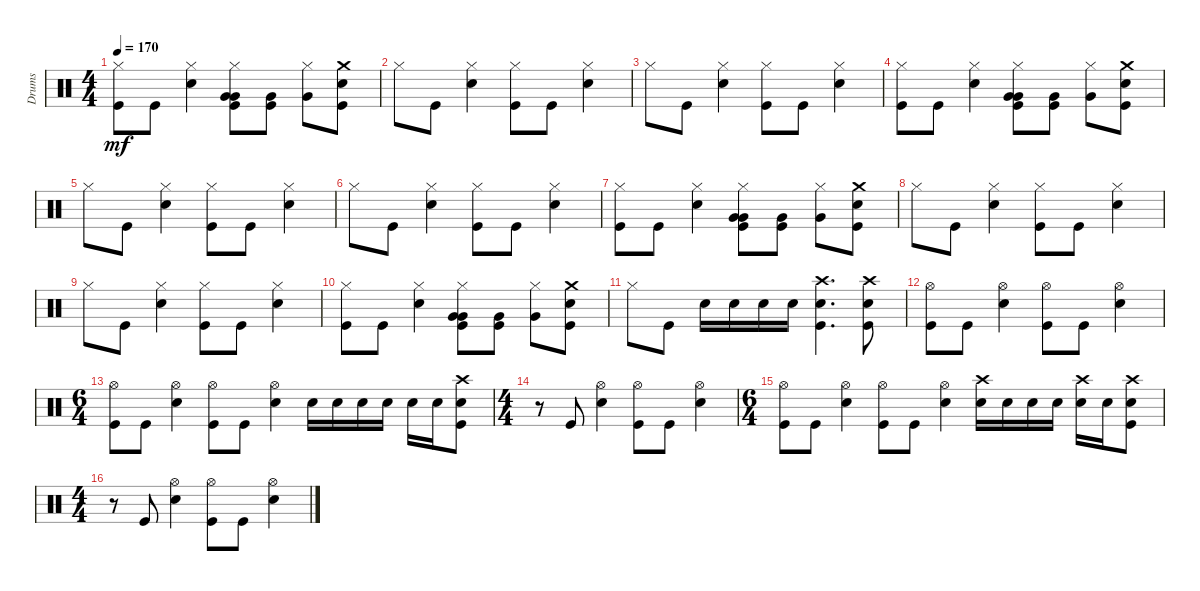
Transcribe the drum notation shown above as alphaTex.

\track ("Drums" "Drums") {instrument percussion}
\staff {score}
\articulation defaults
\ts (4 4)
\tempo 170
\clef neutral
\ks c
("Hi-Hat (closed)" "Kick (hit)").8{dy mf} "Kick (hit)".8 ("Hi-Hat (closed)" "Electric Snare (hit)").4 ("Very Low Tom (hit)" "Hi-Hat (closed)" "Very Low Tom (hit)" "Kick (hit)").8 ("Very Low Tom (hit)" "Kick (hit)").8 ("Hi-Hat (closed)" "Very Low Tom (hit)").8 ("Crash medium (hit)" "Electric Snare (hit)" "Kick (hit)").8 |
"Hi-Hat (closed)".8 "Kick (hit)".8 ("Hi-Hat (closed)" "Electric Snare (hit)").4 ("Hi-Hat (closed)" "Kick (hit)").8 "Kick (hit)".8 ("Hi-Hat (closed)" "Electric Snare (hit)").4 |
"Hi-Hat (closed)".8 "Kick (hit)".8 ("Hi-Hat (closed)" "Electric Snare (hit)").4 ("Hi-Hat (closed)" "Kick (hit)").8 "Kick (hit)".8 ("Hi-Hat (closed)" "Electric Snare (hit)").4 |
("Hi-Hat (closed)" "Kick (hit)").8 "Kick (hit)".8 ("Hi-Hat (closed)" "Electric Snare (hit)").4 ("Very Low Tom (hit)" "Hi-Hat (closed)" "Very Low Tom (hit)" "Kick (hit)").8 ("Very Low Tom (hit)" "Kick (hit)").8 ("Hi-Hat (closed)" "Very Low Tom (hit)").8 ("Crash medium (hit)" "Electric Snare (hit)" "Kick (hit)").8 |
"Hi-Hat (closed)".8 "Kick (hit)".8 ("Hi-Hat (closed)" "Electric Snare (hit)").4 ("Hi-Hat (closed)" "Kick (hit)").8 "Kick (hit)".8 ("Hi-Hat (closed)" "Electric Snare (hit)").4 |
"Hi-Hat (closed)".8 "Kick (hit)".8 ("Hi-Hat (closed)" "Electric Snare (hit)").4 ("Hi-Hat (closed)" "Kick (hit)").8 "Kick (hit)".8 ("Hi-Hat (closed)" "Electric Snare (hit)").4 |
("Hi-Hat (closed)" "Kick (hit)").8 "Kick (hit)".8 ("Hi-Hat (closed)" "Electric Snare (hit)").4 ("Very Low Tom (hit)" "Hi-Hat (closed)" "Very Low Tom (hit)" "Kick (hit)").8 ("Very Low Tom (hit)" "Kick (hit)").8 ("Hi-Hat (closed)" "Very Low Tom (hit)").8 ("Crash medium (hit)" "Electric Snare (hit)" "Kick (hit)").8 |
"Hi-Hat (closed)".8 "Kick (hit)".8 ("Hi-Hat (closed)" "Electric Snare (hit)").4 ("Hi-Hat (closed)" "Kick (hit)").8 "Kick (hit)".8 ("Hi-Hat (closed)" "Electric Snare (hit)").4 |
"Hi-Hat (closed)".8 "Kick (hit)".8 ("Hi-Hat (closed)" "Electric Snare (hit)").4 ("Hi-Hat (closed)" "Kick (hit)").8 "Kick (hit)".8 ("Hi-Hat (closed)" "Electric Snare (hit)").4 |
("Hi-Hat (closed)" "Kick (hit)").8 "Kick (hit)".8 ("Hi-Hat (closed)" "Electric Snare (hit)").4 ("Very Low Tom (hit)" "Hi-Hat (closed)" "Very Low Tom (hit)" "Kick (hit)").8 ("Very Low Tom (hit)" "Kick (hit)").8 ("Hi-Hat (closed)" "Very Low Tom (hit)").8 ("Crash medium (hit)" "Electric Snare (hit)" "Kick (hit)").8 |
"Hi-Hat (closed)".8 "Kick (hit)".8 "Electric Snare (hit)".16 "Electric Snare (hit)".16 "Electric Snare (hit)".16 "Electric Snare (hit)".16 ("Crash high (hit)" "Electric Snare (hit)" "Kick (hit)").4{d} ("Crash high (hit)" "Electric Snare (hit)" "Kick (hit)").8 |
("Hi-Hat (open)" "Kick (hit)").8 "Kick (hit)".8 ("Hi-Hat (open)" "Electric Snare (hit)").4 ("Hi-Hat (open)" "Kick (hit)").8 "Kick (hit)".8 ("Hi-Hat (open)" "Electric Snare (hit)").4 |
\ts (6 4)
("Hi-Hat (open)" "Kick (hit)").8 "Kick (hit)".8 ("Hi-Hat (open)" "Electric Snare (hit)").4 ("Hi-Hat (open)" "Kick (hit)").8 "Kick (hit)".8 ("Hi-Hat (open)" "Electric Snare (hit)").4 "Electric Snare (hit)".16 "Electric Snare (hit)".16 "Electric Snare (hit)".16 "Electric Snare (hit)".16 "Electric Snare (hit)".16 "Electric Snare (hit)".16 ("Crash high (hit)" "Electric Snare (hit)" "Kick (hit)").8 |
\ts (4 4)
r.8 "Kick (hit)".8 ("Hi-Hat (open)" "Electric Snare (hit)").4 ("Hi-Hat (open)" "Kick (hit)").8 "Kick (hit)".8 ("Hi-Hat (open)" "Electric Snare (hit)").4 |
\ts (6 4)
("Hi-Hat (open)" "Kick (hit)").8 "Kick (hit)".8 ("Hi-Hat (open)" "Electric Snare (hit)").4 ("Hi-Hat (open)" "Kick (hit)").8 "Kick (hit)".8 ("Hi-Hat (open)" "Electric Snare (hit)").4 ("Crash high (hit)" "Electric Snare (hit)").16 "Electric Snare (hit)".16 "Electric Snare (hit)".16 "Electric Snare (hit)".16 ("Crash high (hit)" "Electric Snare (hit)").16 "Electric Snare (hit)".16 ("Crash high (hit)" "Electric Snare (hit)" "Kick (hit)").8 |
\ts (4 4)
r.8 "Kick (hit)".8 ("Hi-Hat (open)" "Electric Snare (hit)").4 ("Hi-Hat (open)" "Kick (hit)").8 "Kick (hit)".8 ("Hi-Hat (open)" "Electric Snare (hit)").4
